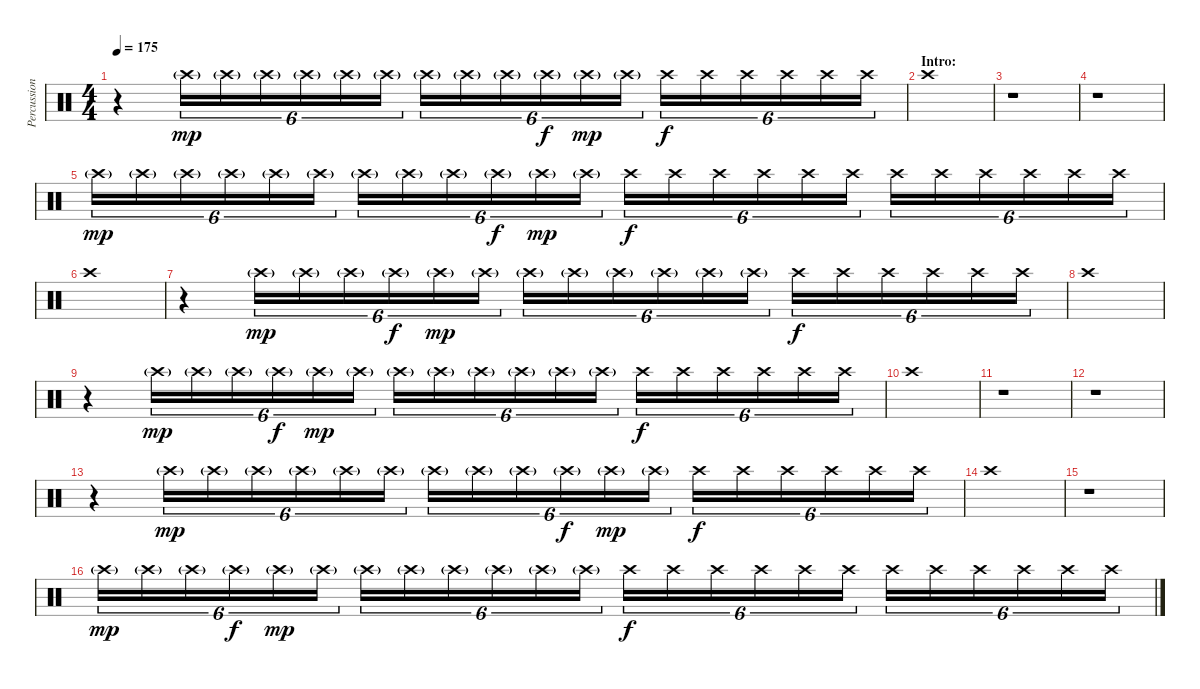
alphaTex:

\track ("Percussion" "Percussion") {instrument percussion}
\staff {score}
\articulation defaults
\ts (4 4)
\tempo 175
\clef neutral
\ks c
r.4{dy mp} "Crash high (hit)"{g}.16{tu (6 4)} "Crash high (hit)"{g}.16{tu (6 4)} "Crash high (hit)"{g}.16{tu (6 4)} "Crash high (hit)"{g}.16{tu (6 4)} "Crash high (hit)"{g}.16{tu (6 4)} "Crash high (hit)"{g}.16{tu (6 4)} "Crash high (hit)"{g}.16{tu (6 4)} "Crash high (hit)"{g}.16{tu (6 4)} "Crash high (hit)"{g}.16{tu (6 4)} "Crash high (hit)"{g}.16{tu (6 4) dy f} "Crash high (hit)"{g}.16{tu (6 4) dy mp} "Crash high (hit)"{g}.16{tu (6 4)} "Crash high (hit)".16{tu (6 4) dy f} "Crash high (hit)".16{tu (6 4)} "Crash high (hit)".16{tu (6 4)} "Crash high (hit)".16{tu (6 4)} "Crash high (hit)".16{tu (6 4)} "Crash high (hit)".16{tu (6 4)} |
\section ("" "Intro:")
"Crash high (hit)".1 |
r.1 |
r.1 |
"Crash high (hit)"{g}.16{tu (6 4) dy mp} "Crash high (hit)"{g}.16{tu (6 4)} "Crash high (hit)"{g}.16{tu (6 4)} "Crash high (hit)"{g}.16{tu (6 4)} "Crash high (hit)"{g}.16{tu (6 4)} "Crash high (hit)"{g}.16{tu (6 4)} "Crash high (hit)"{g}.16{tu (6 4)} "Crash high (hit)"{g}.16{tu (6 4)} "Crash high (hit)"{g}.16{tu (6 4)} "Crash high (hit)"{g}.16{tu (6 4) dy f} "Crash high (hit)"{g}.16{tu (6 4) dy mp} "Crash high (hit)"{g}.16{tu (6 4)} "Crash high (hit)".16{tu (6 4) dy f} "Crash high (hit)".16{tu (6 4)} "Crash high (hit)".16{tu (6 4)} "Crash high (hit)".16{tu (6 4)} "Crash high (hit)".16{tu (6 4)} "Crash high (hit)".16{tu (6 4)} "Crash high (hit)".16{tu (6 4)} "Crash high (hit)".16{tu (6 4)} "Crash high (hit)".16{tu (6 4)} "Crash high (hit)".16{tu (6 4)} "Crash high (hit)".16{tu (6 4)} "Crash high (hit)".16{tu (6 4)} |
"Crash high (hit)".1 |
r.4 "Crash high (hit)"{g}.16{tu (6 4) dy mp} "Crash high (hit)"{g}.16{tu (6 4)} "Crash high (hit)"{g}.16{tu (6 4)} "Crash high (hit)"{g}.16{tu (6 4) dy f} "Crash high (hit)"{g}.16{tu (6 4) dy mp} "Crash high (hit)"{g}.16{tu (6 4)} "Crash high (hit)"{g}.16{tu (6 4)} "Crash high (hit)"{g}.16{tu (6 4)} "Crash high (hit)"{g}.16{tu (6 4)} "Crash high (hit)"{g}.16{tu (6 4)} "Crash high (hit)"{g}.16{tu (6 4)} "Crash high (hit)"{g}.16{tu (6 4)} "Crash high (hit)".16{tu (6 4) dy f} "Crash high (hit)".16{tu (6 4)} "Crash high (hit)".16{tu (6 4)} "Crash high (hit)".16{tu (6 4)} "Crash high (hit)".16{tu (6 4)} "Crash high (hit)".16{tu (6 4)} |
"Crash high (hit)".1 |
r.4 "Crash high (hit)"{g}.16{tu (6 4) dy mp} "Crash high (hit)"{g}.16{tu (6 4)} "Crash high (hit)"{g}.16{tu (6 4)} "Crash high (hit)"{g}.16{tu (6 4) dy f} "Crash high (hit)"{g}.16{tu (6 4) dy mp} "Crash high (hit)"{g}.16{tu (6 4)} "Crash high (hit)"{g}.16{tu (6 4)} "Crash high (hit)"{g}.16{tu (6 4)} "Crash high (hit)"{g}.16{tu (6 4)} "Crash high (hit)"{g}.16{tu (6 4)} "Crash high (hit)"{g}.16{tu (6 4)} "Crash high (hit)"{g}.16{tu (6 4)} "Crash high (hit)".16{tu (6 4) dy f} "Crash high (hit)".16{tu (6 4)} "Crash high (hit)".16{tu (6 4)} "Crash high (hit)".16{tu (6 4)} "Crash high (hit)".16{tu (6 4)} "Crash high (hit)".16{tu (6 4)} |
"Crash high (hit)".1 |
r.1 |
r.1 |
r.4 "Crash high (hit)"{g}.16{tu (6 4) dy mp} "Crash high (hit)"{g}.16{tu (6 4)} "Crash high (hit)"{g}.16{tu (6 4)} "Crash high (hit)"{g}.16{tu (6 4)} "Crash high (hit)"{g}.16{tu (6 4)} "Crash high (hit)"{g}.16{tu (6 4)} "Crash high (hit)"{g}.16{tu (6 4)} "Crash high (hit)"{g}.16{tu (6 4)} "Crash high (hit)"{g}.16{tu (6 4)} "Crash high (hit)"{g}.16{tu (6 4) dy f} "Crash high (hit)"{g}.16{tu (6 4) dy mp} "Crash high (hit)"{g}.16{tu (6 4)} "Crash high (hit)".16{tu (6 4) dy f} "Crash high (hit)".16{tu (6 4)} "Crash high (hit)".16{tu (6 4)} "Crash high (hit)".16{tu (6 4)} "Crash high (hit)".16{tu (6 4)} "Crash high (hit)".16{tu (6 4)} |
"Crash high (hit)".1 |
r.1 |
"Crash high (hit)"{g}.16{tu (6 4) dy mp} "Crash high (hit)"{g}.16{tu (6 4)} "Crash high (hit)"{g}.16{tu (6 4)} "Crash high (hit)"{g}.16{tu (6 4) dy f} "Crash high (hit)"{g}.16{tu (6 4) dy mp} "Crash high (hit)"{g}.16{tu (6 4)} "Crash high (hit)"{g}.16{tu (6 4)} "Crash high (hit)"{g}.16{tu (6 4)} "Crash high (hit)"{g}.16{tu (6 4)} "Crash high (hit)"{g}.16{tu (6 4)} "Crash high (hit)"{g}.16{tu (6 4)} "Crash high (hit)"{g}.16{tu (6 4)} "Crash high (hit)".16{tu (6 4) dy f} "Crash high (hit)".16{tu (6 4)} "Crash high (hit)".16{tu (6 4)} "Crash high (hit)".16{tu (6 4)} "Crash high (hit)".16{tu (6 4)} "Crash high (hit)".16{tu (6 4)} "Crash high (hit)".16{tu (6 4)} "Crash high (hit)".16{tu (6 4)} "Crash high (hit)".16{tu (6 4)} "Crash high (hit)".16{tu (6 4)} "Crash high (hit)".16{tu (6 4)} "Crash high (hit)".16{tu (6 4)}
